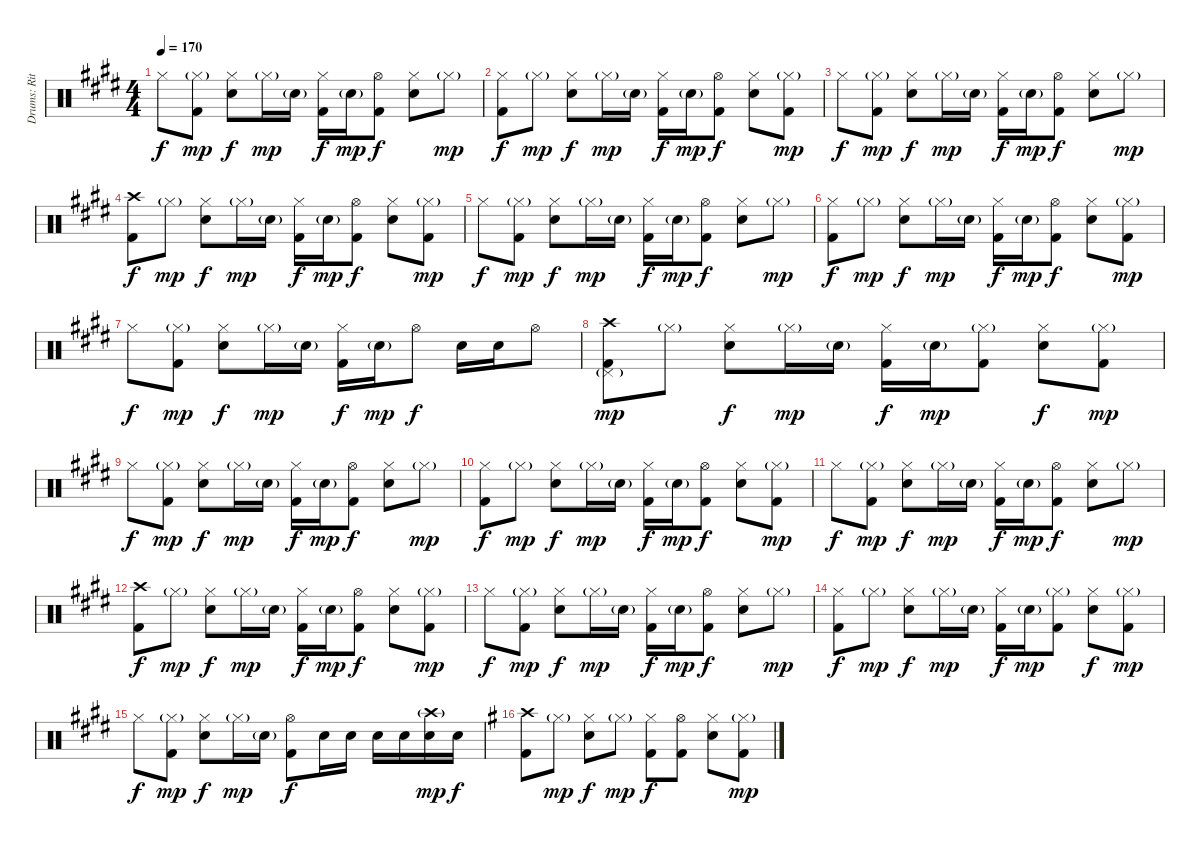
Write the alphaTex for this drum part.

\track ("Drums: Ritsu Tainaka" "Drums: Rit") {instrument percussion}
\staff {score}
\articulation defaults
\ts (4 4)
\tempo 170
\clef neutral
\ks e "Hi-Hat (closed)".8{dy f}
("Hi-Hat (closed)"{g} "Kick (hit) 2").8{dy mp} ("Hi-Hat (closed)" "Electric Snare (hit)").8{dy f} "Hi-Hat (closed)"{g}.16{dy mp} "Electric Snare (hit)"{g}.16 ("Hi-Hat (closed)" "Kick (hit) 2").16{dy f} "Electric Snare (hit)"{g}.16{dy mp} ("Hi-Hat (open)" "Kick (hit) 2").8{dy f} ("Hi-Hat (closed)" "Electric Snare (hit)").8 "Hi-Hat (closed)"{g}.8{dy mp} |
("Hi-Hat (closed)" "Kick (hit) 2").8{dy f} "Hi-Hat (closed)"{g}.8{dy mp} ("Hi-Hat (closed)" "Electric Snare (hit)").8{dy f} "Hi-Hat (closed)"{g}.16{dy mp} "Electric Snare (hit)"{g}.16 ("Hi-Hat (closed)" "Kick (hit) 2").16{dy f} "Electric Snare (hit)"{g}.16{dy mp} ("Hi-Hat (open)" "Kick (hit) 2").8{dy f} ("Hi-Hat (closed)" "Electric Snare (hit)").8 ("Hi-Hat (closed)"{g} "Kick (hit) 2").8{dy mp} |
"Hi-Hat (closed)".8{dy f} ("Hi-Hat (closed)"{g} "Kick (hit) 2").8{dy mp} ("Hi-Hat (closed)" "Electric Snare (hit)").8{dy f} "Hi-Hat (closed)"{g}.16{dy mp} "Electric Snare (hit)"{g}.16 ("Hi-Hat (closed)" "Kick (hit) 2").16{dy f} "Electric Snare (hit)"{g}.16{dy mp} ("Hi-Hat (open)" "Kick (hit) 2").8{dy f} ("Hi-Hat (closed)" "Electric Snare (hit)").8 "Hi-Hat (closed)"{g}.8{dy mp} |
("Crash high (hit)" "Kick (hit) 2").8{dy f} "Hi-Hat (closed)"{g}.8{dy mp} ("Hi-Hat (closed)" "Electric Snare (hit)").8{dy f} "Hi-Hat (closed)"{g}.16{dy mp} "Electric Snare (hit)"{g}.16 ("Hi-Hat (closed)" "Kick (hit) 2").16{dy f} "Electric Snare (hit)"{g}.16{dy mp} ("Hi-Hat (open)" "Kick (hit) 2").8{dy f} ("Hi-Hat (closed)" "Electric Snare (hit)").8 ("Hi-Hat (closed)"{g} "Kick (hit) 2").8{dy mp} |
"Hi-Hat (closed)".8{dy f} ("Hi-Hat (closed)"{g} "Kick (hit) 2").8{dy mp} ("Hi-Hat (closed)" "Electric Snare (hit)").8{dy f} "Hi-Hat (closed)"{g}.16{dy mp} "Electric Snare (hit)"{g}.16 ("Hi-Hat (closed)" "Kick (hit) 2").16{dy f} "Electric Snare (hit)"{g}.16{dy mp} ("Hi-Hat (open)" "Kick (hit) 2").8{dy f} ("Hi-Hat (closed)" "Electric Snare (hit)").8 "Hi-Hat (closed)"{g}.8{dy mp} |
("Hi-Hat (closed)" "Kick (hit) 2").8{dy f} "Hi-Hat (closed)"{g}.8{dy mp} ("Hi-Hat (closed)" "Electric Snare (hit)").8{dy f} "Hi-Hat (closed)"{g}.16{dy mp} "Electric Snare (hit)"{g}.16 ("Hi-Hat (closed)" "Kick (hit) 2").16{dy f} "Electric Snare (hit)"{g}.16{dy mp} ("Hi-Hat (open)" "Kick (hit) 2").8{dy f} ("Hi-Hat (closed)" "Electric Snare (hit)").8 ("Hi-Hat (closed)"{g} "Kick (hit) 2").8{dy mp} |
"Hi-Hat (closed)".8{dy f} ("Hi-Hat (closed)"{g} "Kick (hit) 2").8{dy mp} ("Hi-Hat (closed)" "Electric Snare (hit)").8{dy f} "Hi-Hat (closed)"{g}.16{dy mp} "Electric Snare (hit)"{g}.16 ("Hi-Hat (closed)" "Kick (hit) 2").16{dy f} "Electric Snare (hit)"{g}.16{dy mp} "Hi-Hat (open)".8{dy f} "Electric Snare (hit)".16 "Electric Snare (hit)".16 "Hi-Hat (open)".8 |
("Crash high (hit)" "Pedal Hi-Hat (hit)"{g} "Kick (hit) 2").8{dy mp} "Hi-Hat (closed)"{g}.8 ("Hi-Hat (closed)" "Electric Snare (hit)").8{dy f} "Hi-Hat (closed)"{g}.16{dy mp} "Electric Snare (hit)"{g}.16 ("Hi-Hat (closed)" "Kick (hit) 2").16{dy f} "Electric Snare (hit)"{g}.16{dy mp} ("Hi-Hat (closed)"{g} "Kick (hit) 2").8 ("Hi-Hat (closed)" "Electric Snare (hit)").8{dy f} ("Hi-Hat (closed)"{g} "Kick (hit) 2").8{dy mp} |
"Hi-Hat (closed)".8{dy f} ("Hi-Hat (closed)"{g} "Kick (hit) 2").8{dy mp} ("Hi-Hat (closed)" "Electric Snare (hit)").8{dy f} "Hi-Hat (closed)"{g}.16{dy mp} "Electric Snare (hit)"{g}.16 ("Hi-Hat (closed)" "Kick (hit) 2").16{dy f} "Electric Snare (hit)"{g}.16{dy mp} ("Hi-Hat (open)" "Kick (hit) 2").8{dy f} ("Hi-Hat (closed)" "Electric Snare (hit)").8 "Hi-Hat (closed)"{g}.8{dy mp} |
("Hi-Hat (closed)" "Kick (hit) 2").8{dy f} "Hi-Hat (closed)"{g}.8{dy mp} ("Hi-Hat (closed)" "Electric Snare (hit)").8{dy f} "Hi-Hat (closed)"{g}.16{dy mp} "Electric Snare (hit)"{g}.16 ("Hi-Hat (closed)" "Kick (hit) 2").16{dy f} "Electric Snare (hit)"{g}.16{dy mp} ("Hi-Hat (open)" "Kick (hit) 2").8{dy f} ("Hi-Hat (closed)" "Electric Snare (hit)").8 ("Hi-Hat (closed)"{g} "Kick (hit) 2").8{dy mp} |
"Hi-Hat (closed)".8{dy f} ("Hi-Hat (closed)"{g} "Kick (hit) 2").8{dy mp} ("Hi-Hat (closed)" "Electric Snare (hit)").8{dy f} "Hi-Hat (closed)"{g}.16{dy mp} "Electric Snare (hit)"{g}.16 ("Hi-Hat (closed)" "Kick (hit) 2").16{dy f} "Electric Snare (hit)"{g}.16{dy mp} ("Hi-Hat (open)" "Kick (hit) 2").8{dy f} ("Hi-Hat (closed)" "Electric Snare (hit)").8 "Hi-Hat (closed)"{g}.8{dy mp} |
("Crash high (hit)" "Kick (hit) 2").8{dy f} "Hi-Hat (closed)"{g}.8{dy mp} ("Hi-Hat (closed)" "Electric Snare (hit)").8{dy f} "Hi-Hat (closed)"{g}.16{dy mp} "Electric Snare (hit)"{g}.16 ("Hi-Hat (closed)" "Kick (hit) 2").16{dy f} "Electric Snare (hit)"{g}.16{dy mp} ("Hi-Hat (open)" "Kick (hit) 2").8{dy f} ("Hi-Hat (closed)" "Electric Snare (hit)").8 ("Hi-Hat (closed)"{g} "Kick (hit) 2").8{dy mp} |
"Hi-Hat (closed)".8{dy f} ("Hi-Hat (closed)"{g} "Kick (hit) 2").8{dy mp} ("Hi-Hat (closed)" "Electric Snare (hit)").8{dy f} "Hi-Hat (closed)"{g}.16{dy mp} "Electric Snare (hit)"{g}.16 ("Hi-Hat (closed)" "Kick (hit) 2").16{dy f} "Electric Snare (hit)"{g}.16{dy mp} ("Hi-Hat (open)" "Kick (hit) 2").8{dy f} ("Hi-Hat (closed)" "Electric Snare (hit)").8 "Hi-Hat (closed)"{g}.8{dy mp} |
("Hi-Hat (closed)" "Kick (hit) 2").8{dy f} "Hi-Hat (closed)"{g}.8{dy mp} ("Hi-Hat (closed)" "Electric Snare (hit)").8{dy f} "Hi-Hat (closed)"{g}.16{dy mp} "Electric Snare (hit)"{g}.16 ("Hi-Hat (closed)" "Kick (hit) 2").16{dy f} "Electric Snare (hit)"{g}.16{dy mp} ("Hi-Hat (closed)"{g} "Kick (hit) 2").8 ("Hi-Hat (closed)" "Electric Snare (hit)").8{dy f} ("Hi-Hat (closed)"{g} "Kick (hit) 2").8{dy mp} |
"Hi-Hat (closed)".8{dy f} ("Hi-Hat (closed)"{g} "Kick (hit) 2").8{dy mp} ("Hi-Hat (closed)" "Electric Snare (hit)").8{dy f} "Hi-Hat (closed)"{g}.16{dy mp} "Electric Snare (hit)"{g}.16 ("Hi-Hat (open)" "Kick (hit) 2").8{dy f} "Electric Snare (hit)".16 "Electric Snare (hit)".16 "Electric Snare (hit)".16 "Electric Snare (hit)".16 ("Crash high (hit)"{g} "Electric Snare (hit)").16{dy mp} "Electric Snare (hit)".16{dy f} |
\ks eminor
("Crash high (hit)" "Kick (hit) 2").8 "Hi-Hat (closed)"{g}.8{dy mp} ("Hi-Hat (closed)" "Electric Snare (hit)").8{dy f} "Hi-Hat (closed)"{g}.8{dy mp} ("Hi-Hat (closed)" "Kick (hit) 2").8{dy f} ("Hi-Hat (open)" "Kick (hit) 2").8 ("Hi-Hat (closed)" "Electric Snare (hit)").8 ("Hi-Hat (closed)"{g} "Kick (hit) 2").8{dy mp}
